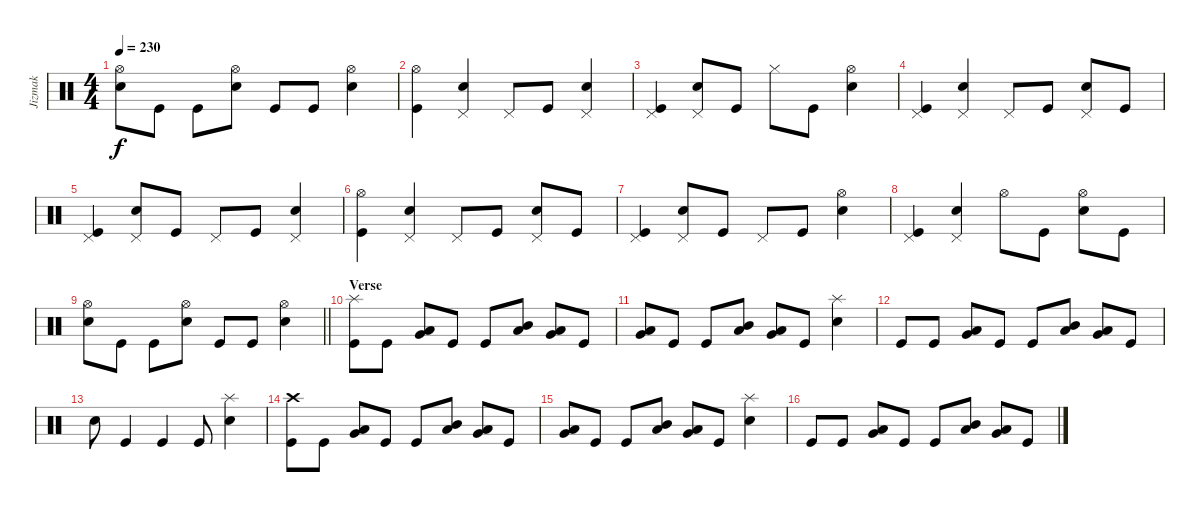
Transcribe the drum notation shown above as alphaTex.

\track ("Jizmak" "Jizmak") {instrument percussion}
\staff {score}
\articulation defaults
\ts (4 4)
\tempo 230
\clef neutral
\ks c
("Hi-Hat (open)" "Snare (hit) 2").8{dy f} "Kick (hit)".8 "Kick (hit)".8 ("Hi-Hat (open)" "Snare (hit) 2").8 "Kick (hit)".8 "Kick (hit)".8 ("Hi-Hat (open)" "Snare (hit) 2").4 |
("Hi-Hat (open)" "Kick (hit)").4 ("Pedal Hi-Hat (hit)" "Snare (hit) 2").4 "Pedal Hi-Hat (hit)".8 "Kick (hit)".8 ("Pedal Hi-Hat (hit)" "Snare (hit) 2").4 |
("Pedal Hi-Hat (hit)" "Kick (hit)").4 ("Pedal Hi-Hat (hit)" "Snare (hit) 2").8 "Kick (hit)".8 "Hi-Hat (closed)".8 "Kick (hit)".8 ("Hi-Hat (open)" "Snare (hit) 2").4 |
("Pedal Hi-Hat (hit)" "Kick (hit)").4 ("Pedal Hi-Hat (hit)" "Snare (hit) 2").4 "Pedal Hi-Hat (hit)".8 "Kick (hit)".8 ("Pedal Hi-Hat (hit)" "Snare (hit) 2").8 "Kick (hit)".8 |
("Pedal Hi-Hat (hit)" "Kick (hit)").4 ("Pedal Hi-Hat (hit)" "Snare (hit) 2").8 "Kick (hit)".8 "Pedal Hi-Hat (hit)".8 "Kick (hit)".8 ("Pedal Hi-Hat (hit)" "Snare (hit) 2").4 |
("Hi-Hat (open)" "Kick (hit)").4 ("Pedal Hi-Hat (hit)" "Snare (hit) 2").4 "Pedal Hi-Hat (hit)".8 "Kick (hit)".8 ("Pedal Hi-Hat (hit)" "Snare (hit) 2").8 "Kick (hit)".8 |
("Pedal Hi-Hat (hit)" "Kick (hit)").4 ("Pedal Hi-Hat (hit)" "Snare (hit) 2").8 "Kick (hit)".8 "Pedal Hi-Hat (hit)".8 "Kick (hit)".8 ("Hi-Hat (open)" "Snare (hit) 2").4 |
("Pedal Hi-Hat (hit)" "Kick (hit)").4 ("Pedal Hi-Hat (hit)" "Snare (hit) 2").4 "Hi-Hat (open)".8 "Kick (hit)".8 ("Hi-Hat (open)" "Snare (hit) 2").8 "Kick (hit)".8 |
\barLineRight lightlight
("Hi-Hat (open)" "Snare (hit) 2").8 "Kick (hit)".8 "Kick (hit)".8 ("Hi-Hat (open)" "Snare (hit) 2").8 "Kick (hit)".8 "Kick (hit)".8 ("Hi-Hat (open)" "Snare (hit) 2").4 |
\section ("" "Verse")
("Splash (hit)" "Kick (hit)").8 "Kick (hit)".8 ("Low Tom (hit)" "Very Low Tom (hit)").8 "Kick (hit)".8 "Kick (hit)".8 ("Mid Tom (hit)" "Low Tom (hit)").8 ("Low Tom (hit)" "Very Low Tom (hit)").8 "Kick (hit)".8 |
("Low Tom (hit)" "Very Low Tom (hit)").8 "Kick (hit)".8 "Kick (hit)".8 ("Mid Tom (hit)" "Low Tom (hit)").8 ("Low Tom (hit)" "Very Low Tom (hit)").8 "Kick (hit)".8 ("Splash (hit)" "Snare (hit) 2").4 |
"Kick (hit)".8 "Kick (hit)".8 ("Low Tom (hit)" "Very Low Tom (hit)").8 "Kick (hit)".8 "Kick (hit)".8 ("Mid Tom (hit)" "Low Tom (hit)").8 ("Low Tom (hit)" "Very Low Tom (hit)").8 "Kick (hit)".8 |
"Snare (hit) 2".8 "Kick (hit)".4 "Kick (hit)".4 "Kick (hit)".8 ("Splash (hit)" "Snare (hit) 2").4 |
("Crash high (hit)" "Kick (hit)").8 "Kick (hit)".8 ("Low Tom (hit)" "Very Low Tom (hit)").8 "Kick (hit)".8 "Kick (hit)".8 ("Mid Tom (hit)" "Low Tom (hit)").8 ("Low Tom (hit)" "Very Low Tom (hit)").8 "Kick (hit)".8 |
("Low Tom (hit)" "Very Low Tom (hit)").8 "Kick (hit)".8 "Kick (hit)".8 ("Mid Tom (hit)" "Low Tom (hit)").8 ("Low Tom (hit)" "Very Low Tom (hit)").8 "Kick (hit)".8 ("Splash (hit)" "Snare (hit) 2").4 |
"Kick (hit)".8 "Kick (hit)".8 ("Low Tom (hit)" "Very Low Tom (hit)").8 "Kick (hit)".8 "Kick (hit)".8 ("Mid Tom (hit)" "Low Tom (hit)").8 ("Low Tom (hit)" "Very Low Tom (hit)").8 "Kick (hit)".8
